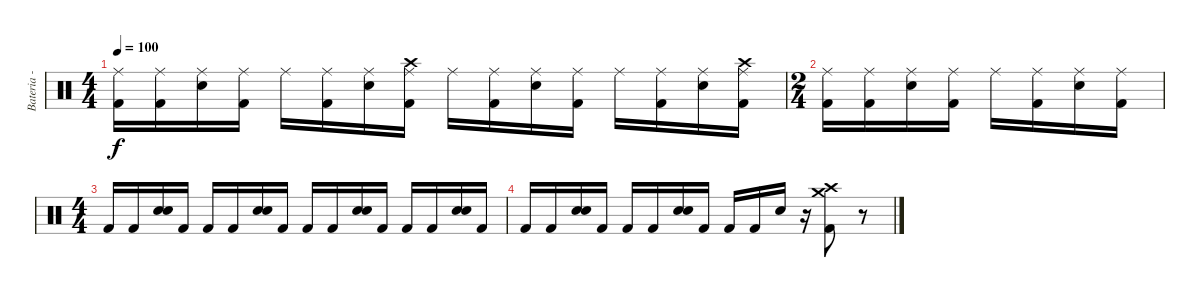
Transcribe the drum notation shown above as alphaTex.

\track ("Bateria - Frederik Larzon" "Bateria - ") {instrument percussion}
\staff {score}
\articulation defaults
\ts (4 4)
\tempo 100
\clef neutral
\ks c
("Kick (hit) 2" "Ride (middle)").16{dy f} ("Kick (hit) 2" "Ride (middle)").16 ("Snare (hit) 2" "Ride (middle)").16 ("Kick (hit) 2" "Ride (middle)").16 "Ride (middle)".16 ("Kick (hit) 2" "Ride (middle)").16 ("Snare (hit) 2" "Ride (middle)").16 ("Kick (hit) 2" "Crash high (hit)" "Ride (middle)").16 "Ride (middle)".16 ("Kick (hit) 2" "Ride (middle)").16 ("Snare (hit) 2" "Ride (middle)").16 ("Kick (hit) 2" "Ride (middle)").16 "Ride (middle)".16 ("Kick (hit) 2" "Ride (middle)").16 ("Snare (hit) 2" "Ride (middle)").16 ("Kick (hit) 2" "Crash high (hit)" "Ride (middle)").16 |
\ts (2 4)
("Kick (hit) 2" "Ride (middle)").16 ("Kick (hit) 2" "Ride (middle)").16 ("Snare (hit) 2" "Ride (middle)").16 ("Kick (hit) 2" "Ride (middle)").16 "Ride (middle)".16 ("Kick (hit) 2" "Ride (middle)").16 ("Snare (hit) 2" "Ride (middle)").16 ("Kick (hit) 2" "Ride (middle)").16 |
\ts (4 4)
"Kick (hit) 2".16 "Kick (hit) 2".16 ("Snare (hit) 2" "Electric Snare (hit)").16 "Kick (hit) 2".16 "Kick (hit) 2".16 "Kick (hit) 2".16 ("Snare (hit) 2" "Electric Snare (hit)").16 "Kick (hit) 2".16 "Kick (hit) 2".16 "Kick (hit) 2".16 ("Snare (hit) 2" "Electric Snare (hit)").16 "Kick (hit) 2".16 "Kick (hit) 2".16 "Kick (hit) 2".16 ("Snare (hit) 2" "Electric Snare (hit)").16 "Kick (hit) 2".16 |
"Kick (hit) 2".16 "Kick (hit) 2".16 ("Snare (hit) 2" "Electric Snare (hit)").16 "Kick (hit) 2".16 "Kick (hit) 2".16 "Kick (hit) 2".16 ("Snare (hit) 2" "Electric Snare (hit)").16 "Kick (hit) 2".16 "Kick (hit) 2".16 "Kick (hit) 2".16 "Snare (hit) 2".16 r.16 ("Kick (hit) 2" "Crash high (hit)" "Crash medium (hit)").8 r.8{volume 0}
